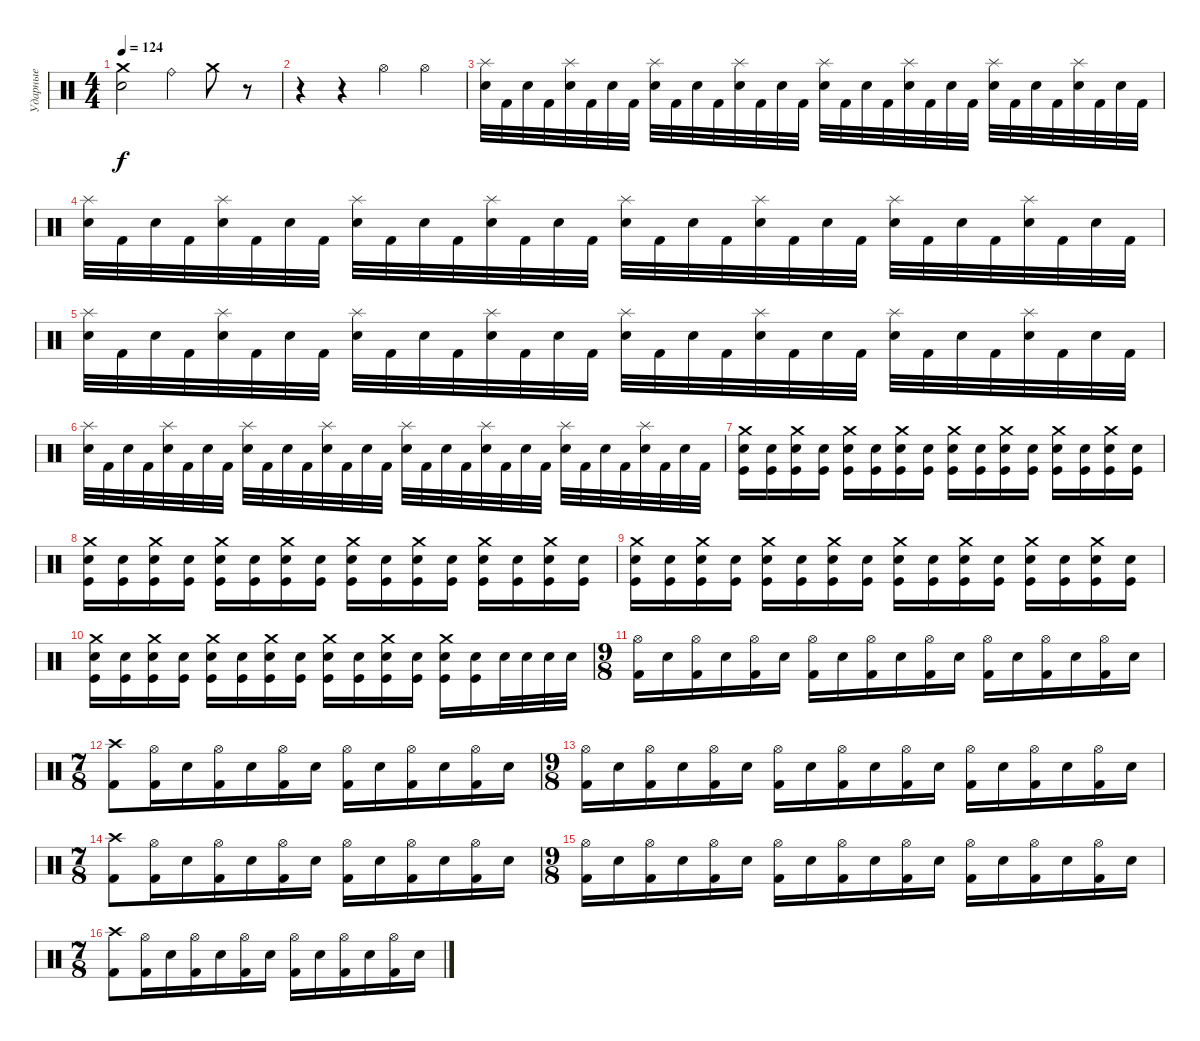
\track ("Ударные" "Ударные") {instrument percussion}
\staff {score}
\articulation defaults
\ts (4 4)
\tempo 124
\clef neutral
\ks c
("Crash medium (hit)" "Electric Snare (hit)").2{dy f} "Ride (bell)".4 "Crash medium (hit)".8 r.8 |
r.4 r.4 "Hi-Hat (open)".4 "Hi-Hat (open)".4 |
("Splash (hit)" "Electric Snare (hit)").32 "Kick (hit) 2".32 "Electric Snare (hit)".32 "Kick (hit) 2".32 ("Splash (hit)" "Electric Snare (hit)").32 "Kick (hit) 2".32 "Electric Snare (hit)".32 "Kick (hit) 2".32 ("Splash (hit)" "Electric Snare (hit)").32 "Kick (hit) 2".32 "Electric Snare (hit)".32 "Kick (hit) 2".32 ("Splash (hit)" "Electric Snare (hit)").32 "Kick (hit) 2".32 "Electric Snare (hit)".32 "Kick (hit) 2".32 ("Splash (hit)" "Electric Snare (hit)").32 "Kick (hit) 2".32 "Electric Snare (hit)".32 "Kick (hit) 2".32 ("Splash (hit)" "Electric Snare (hit)").32 "Kick (hit) 2".32 "Electric Snare (hit)".32 "Kick (hit) 2".32 ("Splash (hit)" "Electric Snare (hit)").32 "Kick (hit) 2".32 "Electric Snare (hit)".32 "Kick (hit) 2".32 ("Splash (hit)" "Electric Snare (hit)").32 "Kick (hit) 2".32 "Electric Snare (hit)".32 "Kick (hit) 2".32 |
("Splash (hit)" "Electric Snare (hit)").32 "Kick (hit) 2".32 "Electric Snare (hit)".32 "Kick (hit) 2".32 ("Splash (hit)" "Electric Snare (hit)").32 "Kick (hit) 2".32 "Electric Snare (hit)".32 "Kick (hit) 2".32 ("Splash (hit)" "Electric Snare (hit)").32 "Kick (hit) 2".32 "Electric Snare (hit)".32 "Kick (hit) 2".32 ("Splash (hit)" "Electric Snare (hit)").32 "Kick (hit) 2".32 "Electric Snare (hit)".32 "Kick (hit) 2".32 ("Splash (hit)" "Electric Snare (hit)").32 "Kick (hit) 2".32 "Electric Snare (hit)".32 "Kick (hit) 2".32 ("Splash (hit)" "Electric Snare (hit)").32 "Kick (hit) 2".32 "Electric Snare (hit)".32 "Kick (hit) 2".32 ("Splash (hit)" "Electric Snare (hit)").32 "Kick (hit) 2".32 "Electric Snare (hit)".32 "Kick (hit) 2".32 ("Splash (hit)" "Electric Snare (hit)").32 "Kick (hit) 2".32 "Electric Snare (hit)".32 "Kick (hit) 2".32 |
("Splash (hit)" "Electric Snare (hit)").32 "Kick (hit) 2".32 "Electric Snare (hit)".32 "Kick (hit) 2".32 ("Splash (hit)" "Electric Snare (hit)").32 "Kick (hit) 2".32 "Electric Snare (hit)".32 "Kick (hit) 2".32 ("Splash (hit)" "Electric Snare (hit)").32 "Kick (hit) 2".32 "Electric Snare (hit)".32 "Kick (hit) 2".32 ("Splash (hit)" "Electric Snare (hit)").32 "Kick (hit) 2".32 "Electric Snare (hit)".32 "Kick (hit) 2".32 ("Splash (hit)" "Electric Snare (hit)").32 "Kick (hit) 2".32 "Electric Snare (hit)".32 "Kick (hit) 2".32 ("Splash (hit)" "Electric Snare (hit)").32 "Kick (hit) 2".32 "Electric Snare (hit)".32 "Kick (hit) 2".32 ("Splash (hit)" "Electric Snare (hit)").32 "Kick (hit) 2".32 "Electric Snare (hit)".32 "Kick (hit) 2".32 ("Splash (hit)" "Electric Snare (hit)").32 "Kick (hit) 2".32 "Electric Snare (hit)".32 "Kick (hit) 2".32 |
("Splash (hit)" "Electric Snare (hit)").32 "Kick (hit) 2".32 "Electric Snare (hit)".32 "Kick (hit) 2".32 ("Splash (hit)" "Electric Snare (hit)").32 "Kick (hit) 2".32 "Electric Snare (hit)".32 "Kick (hit) 2".32 ("Splash (hit)" "Electric Snare (hit)").32 "Kick (hit) 2".32 "Electric Snare (hit)".32 "Kick (hit) 2".32 ("Splash (hit)" "Electric Snare (hit)").32 "Kick (hit) 2".32 "Electric Snare (hit)".32 "Kick (hit) 2".32 ("Splash (hit)" "Electric Snare (hit)").32 "Kick (hit) 2".32 "Electric Snare (hit)".32 "Kick (hit) 2".32 ("Splash (hit)" "Electric Snare (hit)").32 "Kick (hit) 2".32 "Electric Snare (hit)".32 "Kick (hit) 2".32 ("Splash (hit)" "Electric Snare (hit)").32 "Kick (hit) 2".32 "Electric Snare (hit)".32 "Kick (hit) 2".32 ("Splash (hit)" "Electric Snare (hit)").32 "Kick (hit) 2".32 "Electric Snare (hit)".32 "Kick (hit) 2".32 |
("Crash medium (hit)" "Electric Snare (hit)" "Kick (hit)").16 ("Electric Snare (hit)" "Kick (hit)").16 ("Crash medium (hit)" "Electric Snare (hit)" "Kick (hit)").16 ("Electric Snare (hit)" "Kick (hit)").16 ("Crash medium (hit)" "Electric Snare (hit)" "Kick (hit)").16 ("Electric Snare (hit)" "Kick (hit)").16 ("Crash medium (hit)" "Electric Snare (hit)" "Kick (hit)").16 ("Electric Snare (hit)" "Kick (hit)").16 ("Crash medium (hit)" "Electric Snare (hit)" "Kick (hit)").16 ("Electric Snare (hit)" "Kick (hit)").16 ("Crash medium (hit)" "Electric Snare (hit)" "Kick (hit)").16 ("Electric Snare (hit)" "Kick (hit)").16 ("Crash medium (hit)" "Electric Snare (hit)" "Kick (hit)").16 ("Electric Snare (hit)" "Kick (hit)").16 ("Crash medium (hit)" "Electric Snare (hit)" "Kick (hit)").16 ("Electric Snare (hit)" "Kick (hit)").16 |
("Crash medium (hit)" "Electric Snare (hit)" "Kick (hit)").16 ("Electric Snare (hit)" "Kick (hit)").16 ("Crash medium (hit)" "Electric Snare (hit)" "Kick (hit)").16 ("Electric Snare (hit)" "Kick (hit)").16 ("Crash medium (hit)" "Electric Snare (hit)" "Kick (hit)").16 ("Electric Snare (hit)" "Kick (hit)").16 ("Crash medium (hit)" "Electric Snare (hit)" "Kick (hit)").16 ("Electric Snare (hit)" "Kick (hit)").16 ("Crash medium (hit)" "Electric Snare (hit)" "Kick (hit)").16 ("Electric Snare (hit)" "Kick (hit)").16 ("Crash medium (hit)" "Electric Snare (hit)" "Kick (hit)").16 ("Electric Snare (hit)" "Kick (hit)").16 ("Crash medium (hit)" "Electric Snare (hit)" "Kick (hit)").16 ("Electric Snare (hit)" "Kick (hit)").16 ("Crash medium (hit)" "Electric Snare (hit)" "Kick (hit)").16 ("Electric Snare (hit)" "Kick (hit)").16 |
("Crash medium (hit)" "Electric Snare (hit)" "Kick (hit)").16 ("Electric Snare (hit)" "Kick (hit)").16 ("Crash medium (hit)" "Electric Snare (hit)" "Kick (hit)").16 ("Electric Snare (hit)" "Kick (hit)").16 ("Crash medium (hit)" "Electric Snare (hit)" "Kick (hit)").16 ("Electric Snare (hit)" "Kick (hit)").16 ("Crash medium (hit)" "Electric Snare (hit)" "Kick (hit)").16 ("Electric Snare (hit)" "Kick (hit)").16 ("Crash medium (hit)" "Electric Snare (hit)" "Kick (hit)").16 ("Electric Snare (hit)" "Kick (hit)").16 ("Crash medium (hit)" "Electric Snare (hit)" "Kick (hit)").16 ("Electric Snare (hit)" "Kick (hit)").16 ("Crash medium (hit)" "Electric Snare (hit)" "Kick (hit)").16 ("Electric Snare (hit)" "Kick (hit)").16 ("Crash medium (hit)" "Electric Snare (hit)" "Kick (hit)").16 ("Electric Snare (hit)" "Kick (hit)").16 |
("Crash medium (hit)" "Electric Snare (hit)" "Kick (hit)").16 ("Electric Snare (hit)" "Kick (hit)").16 ("Crash medium (hit)" "Electric Snare (hit)" "Kick (hit)").16 ("Electric Snare (hit)" "Kick (hit)").16 ("Crash medium (hit)" "Electric Snare (hit)" "Kick (hit)").16 ("Electric Snare (hit)" "Kick (hit)").16 ("Crash medium (hit)" "Electric Snare (hit)" "Kick (hit)").16 ("Electric Snare (hit)" "Kick (hit)").16 ("Crash medium (hit)" "Electric Snare (hit)" "Kick (hit)").16 ("Electric Snare (hit)" "Kick (hit)").16 ("Crash medium (hit)" "Electric Snare (hit)" "Kick (hit)").16 ("Electric Snare (hit)" "Kick (hit)").16 ("Crash medium (hit)" "Electric Snare (hit)" "Kick (hit)").16 ("Electric Snare (hit)" "Kick (hit)").16 "Electric Snare (hit)".32 "Electric Snare (hit)".32 "Electric Snare (hit)".32 "Electric Snare (hit)".32 |
\ts (9 8)
("Hi-Hat (open)" "Kick (hit) 2").16 "Electric Snare (hit)".16 ("Hi-Hat (open)" "Kick (hit) 2").16 "Electric Snare (hit)".16 ("Hi-Hat (open)" "Kick (hit) 2").16 "Electric Snare (hit)".16 ("Hi-Hat (open)" "Kick (hit) 2").16 "Electric Snare (hit)".16 ("Hi-Hat (open)" "Kick (hit) 2").16 "Electric Snare (hit)".16 ("Hi-Hat (open)" "Kick (hit) 2").16 "Electric Snare (hit)".16 ("Hi-Hat (open)" "Kick (hit) 2").16 "Electric Snare (hit)".16 ("Hi-Hat (open)" "Kick (hit) 2").16 "Electric Snare (hit)".16 ("Hi-Hat (open)" "Kick (hit) 2").16 "Electric Snare (hit)".16 |
\ts (7 8)
("Crash high (hit)" "Kick (hit) 2").8 ("Hi-Hat (open)" "Kick (hit) 2").16 "Electric Snare (hit)".16 ("Hi-Hat (open)" "Kick (hit) 2").16 "Electric Snare (hit)".16 ("Hi-Hat (open)" "Kick (hit) 2").16 "Electric Snare (hit)".16 ("Hi-Hat (open)" "Kick (hit) 2").16 "Electric Snare (hit)".16 ("Hi-Hat (open)" "Kick (hit) 2").16 "Electric Snare (hit)".16 ("Hi-Hat (open)" "Kick (hit) 2").16 "Electric Snare (hit)".16 |
\ts (9 8)
("Hi-Hat (open)" "Kick (hit) 2").16 "Electric Snare (hit)".16 ("Hi-Hat (open)" "Kick (hit) 2").16 "Electric Snare (hit)".16 ("Hi-Hat (open)" "Kick (hit) 2").16 "Electric Snare (hit)".16 ("Hi-Hat (open)" "Kick (hit) 2").16 "Electric Snare (hit)".16 ("Hi-Hat (open)" "Kick (hit) 2").16 "Electric Snare (hit)".16 ("Hi-Hat (open)" "Kick (hit) 2").16 "Electric Snare (hit)".16 ("Hi-Hat (open)" "Kick (hit) 2").16 "Electric Snare (hit)".16 ("Hi-Hat (open)" "Kick (hit) 2").16 "Electric Snare (hit)".16 ("Hi-Hat (open)" "Kick (hit) 2").16 "Electric Snare (hit)".16 |
\ts (7 8)
("Crash high (hit)" "Kick (hit) 2").8 ("Hi-Hat (open)" "Kick (hit) 2").16 "Electric Snare (hit)".16 ("Hi-Hat (open)" "Kick (hit) 2").16 "Electric Snare (hit)".16 ("Hi-Hat (open)" "Kick (hit) 2").16 "Electric Snare (hit)".16 ("Hi-Hat (open)" "Kick (hit) 2").16 "Electric Snare (hit)".16 ("Hi-Hat (open)" "Kick (hit) 2").16 "Electric Snare (hit)".16 ("Hi-Hat (open)" "Kick (hit) 2").16 "Electric Snare (hit)".16 |
\ts (9 8)
("Hi-Hat (open)" "Kick (hit) 2").16 "Electric Snare (hit)".16 ("Hi-Hat (open)" "Kick (hit) 2").16 "Electric Snare (hit)".16 ("Hi-Hat (open)" "Kick (hit) 2").16 "Electric Snare (hit)".16 ("Hi-Hat (open)" "Kick (hit) 2").16 "Electric Snare (hit)".16 ("Hi-Hat (open)" "Kick (hit) 2").16 "Electric Snare (hit)".16 ("Hi-Hat (open)" "Kick (hit) 2").16 "Electric Snare (hit)".16 ("Hi-Hat (open)" "Kick (hit) 2").16 "Electric Snare (hit)".16 ("Hi-Hat (open)" "Kick (hit) 2").16 "Electric Snare (hit)".16 ("Hi-Hat (open)" "Kick (hit) 2").16 "Electric Snare (hit)".16 |
\ts (7 8)
("Crash high (hit)" "Kick (hit) 2").8 ("Hi-Hat (open)" "Kick (hit) 2").16 "Electric Snare (hit)".16 ("Hi-Hat (open)" "Kick (hit) 2").16 "Electric Snare (hit)".16 ("Hi-Hat (open)" "Kick (hit) 2").16 "Electric Snare (hit)".16 ("Hi-Hat (open)" "Kick (hit) 2").16 "Electric Snare (hit)".16 ("Hi-Hat (open)" "Kick (hit) 2").16 "Electric Snare (hit)".16 ("Hi-Hat (open)" "Kick (hit) 2").16 "Electric Snare (hit)".16
